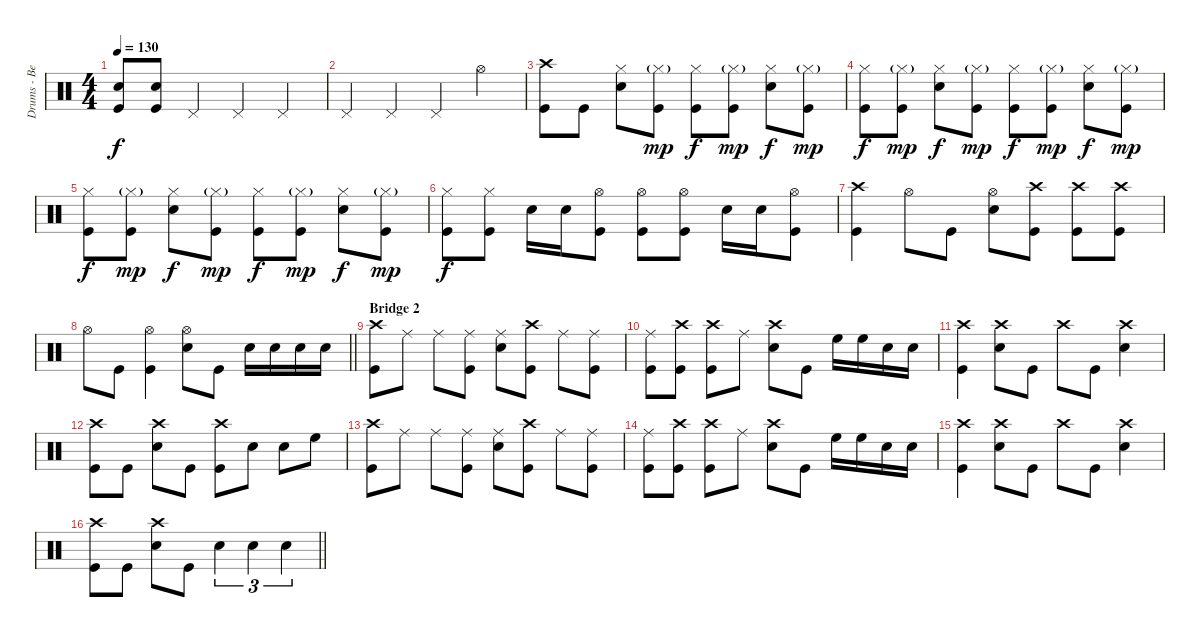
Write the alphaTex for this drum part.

\track ("Drums - Ben Johnston" "Drums - Be") {instrument percussion}
\staff {score}
\articulation defaults
\ts (4 4)
\tempo 130
\clef neutral
\ks aminor
("Snare (hit) 2" "Kick (hit)").8{dy f} ("Snare (hit) 2" "Kick (hit)").8 "Pedal Hi-Hat (hit)".4{volume 13} "Pedal Hi-Hat (hit)".4 "Pedal Hi-Hat (hit)".4 |
"Pedal Hi-Hat (hit)".4 "Pedal Hi-Hat (hit)".4 "Pedal Hi-Hat (hit)".4 "Hi-Hat (open)".4 |
("Crash high (hit)" "Kick (hit)").8 "Kick (hit)".8 ("Hi-Hat (closed)" "Snare (hit) 2").8 ("Hi-Hat (closed)"{g} "Kick (hit)").8{dy mp} ("Hi-Hat (closed)" "Kick (hit)").8{dy f} ("Hi-Hat (closed)"{g} "Kick (hit)").8{dy mp} ("Hi-Hat (closed)" "Snare (hit) 2").8{dy f} ("Hi-Hat (closed)"{g} "Kick (hit)").8{dy mp} |
("Hi-Hat (closed)" "Kick (hit)").8{dy f} ("Hi-Hat (closed)"{g} "Kick (hit)").8{dy mp} ("Hi-Hat (closed)" "Snare (hit) 2").8{dy f} ("Hi-Hat (closed)"{g} "Kick (hit)").8{dy mp} ("Hi-Hat (closed)" "Kick (hit)").8{dy f} ("Hi-Hat (closed)"{g} "Kick (hit)").8{dy mp} ("Hi-Hat (closed)" "Snare (hit) 2").8{dy f} ("Hi-Hat (closed)"{g} "Kick (hit)").8{dy mp} |
("Hi-Hat (closed)" "Kick (hit)").8{dy f} ("Hi-Hat (closed)"{g} "Kick (hit)").8{dy mp} ("Hi-Hat (closed)" "Snare (hit) 2").8{dy f} ("Hi-Hat (closed)"{g} "Kick (hit)").8{dy mp} ("Hi-Hat (closed)" "Kick (hit)").8{dy f} ("Hi-Hat (closed)"{g} "Kick (hit)").8{dy mp} ("Hi-Hat (closed)" "Snare (hit) 2").8{dy f} ("Hi-Hat (closed)"{g} "Kick (hit)").8{dy mp} |
("Hi-Hat (closed)" "Kick (hit)").8{dy f} ("Hi-Hat (closed)" "Kick (hit)").8 "Snare (hit) 2".16 "Snare (hit) 2".16 ("Hi-Hat (open)" "Kick (hit)").8 ("Hi-Hat (open)" "Kick (hit)").8 ("Hi-Hat (open)" "Kick (hit)").8 "Snare (hit) 2".16 "Snare (hit) 2".16 ("Hi-Hat (open)" "Kick (hit)").8 |
("Crash high (hit)" "Kick (hit)").4 "Hi-Hat (open)".8 "Kick (hit)".8 ("Hi-Hat (open)" "Snare (hit) 2").8 ("Crash high (hit)" "Kick (hit)").8 ("Crash high (hit)" "Kick (hit)").8 ("Crash high (hit)" "Kick (hit)").8 |
\barLineRight lightlight "Hi-Hat (open)".8 "Kick (hit)".8
("Hi-Hat (open)" "Kick (hit)").4 ("Hi-Hat (open)" "Snare (hit) 2").8 "Kick (hit)".8 "Snare (hit) 2".16 "Snare (hit) 2".16 "Snare (hit) 2".16 "Snare (hit) 2".16 |
\section ("" "Bridge 2")
("Crash high (hit)" "Kick (hit)").8 "Ride (middle)".8 "Ride (middle)".8 ("Ride (middle)" "Kick (hit)").8 ("Ride (middle)" "Snare (hit) 2").8 ("Crash high (hit)" "Kick (hit)").8 "Ride (middle)".8 ("Ride (middle)" "Kick (hit)").8 |
("Ride (middle)" "Kick (hit)").8 ("Crash high (hit)" "Kick (hit)").8 ("Crash high (hit)" "Kick (hit)").8 "Ride (middle)".8 ("Crash high (hit)" "Snare (hit) 2").8 "Kick (hit)".8 "High Floor Tom (hit)".16 "High Floor Tom (hit)".16 "Snare (hit) 2".16 "Snare (hit) 2".16 |
("Crash high (hit)" "Kick (hit)").4 ("Crash high (hit)" "Snare (hit) 2").8 "Kick (hit)".8 "Crash high (hit)".8 "Kick (hit)".8 ("Crash high (hit)" "Snare (hit) 2").4 |
("Crash high (hit)" "Kick (hit)").8 "Kick (hit)".8 ("Crash high (hit)" "Snare (hit) 2").8 "Kick (hit)".8 ("Crash high (hit)" "Kick (hit)").8 "Snare (hit) 2".8 "Snare (hit) 2".8 "High Floor Tom (hit)".8 |
("Crash high (hit)" "Kick (hit)").8 "Ride (middle)".8 "Ride (middle)".8 ("Ride (middle)" "Kick (hit)").8 ("Ride (middle)" "Snare (hit) 2").8 ("Crash high (hit)" "Kick (hit)").8 "Ride (middle)".8 ("Ride (middle)" "Kick (hit)").8 |
("Ride (middle)" "Kick (hit)").8 ("Crash high (hit)" "Kick (hit)").8 ("Crash high (hit)" "Kick (hit)").8 "Ride (middle)".8 ("Crash high (hit)" "Snare (hit) 2").8 "Kick (hit)".8 "High Floor Tom (hit)".16 "High Floor Tom (hit)".16 "Snare (hit) 2".16 "Snare (hit) 2".16 |
("Crash high (hit)" "Kick (hit)").4 ("Crash high (hit)" "Snare (hit) 2").8 "Kick (hit)".8 "Crash high (hit)".8 "Kick (hit)".8 ("Crash high (hit)" "Snare (hit) 2").4 |
\barLineRight lightlight
("Crash high (hit)" "Kick (hit)").8 "Kick (hit)".8 ("Crash high (hit)" "Snare (hit) 2").8 "Kick (hit)".8 "Snare (hit) 2".4{tu (3 2) volume 16} "Snare (hit) 2".4{tu (3 2)} "Snare (hit) 2".4{tu (3 2)}
